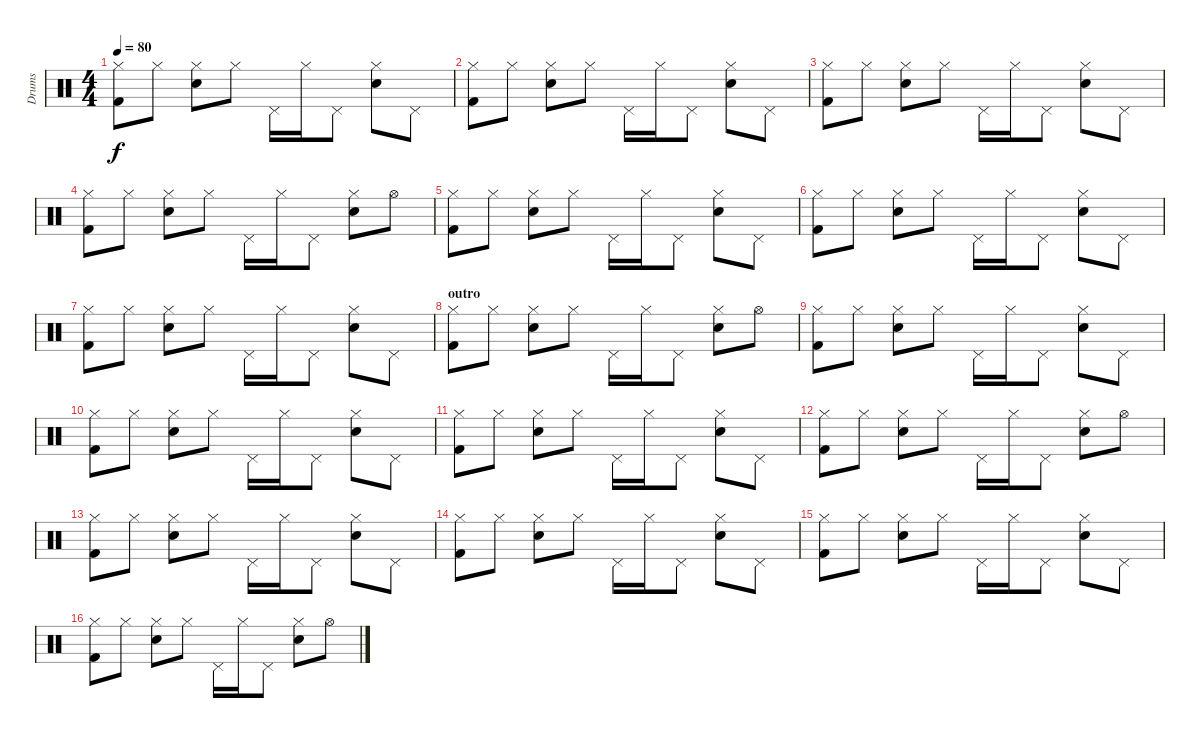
\track ("Drums" "Drums") {instrument percussion}
\staff {score}
\articulation defaults
\ts (4 4)
\tempo 80
\clef neutral
\ks c
("Kick (hit) 2" "Hi-Hat (closed)").8{dy f} "Hi-Hat (closed)".8 ("Snare (hit) 2" "Hi-Hat (closed)").8 "Hi-Hat (closed)".8 "Pedal Hi-Hat (hit)".16 "Hi-Hat (closed)".16 "Pedal Hi-Hat (hit)".8 ("Snare (hit) 2" "Hi-Hat (closed)").8 "Pedal Hi-Hat (hit)".8 |
("Kick (hit) 2" "Hi-Hat (closed)").8 "Hi-Hat (closed)".8 ("Snare (hit) 2" "Hi-Hat (closed)").8 "Hi-Hat (closed)".8 "Pedal Hi-Hat (hit)".16 "Hi-Hat (closed)".16 "Pedal Hi-Hat (hit)".8 ("Snare (hit) 2" "Hi-Hat (closed)").8 "Pedal Hi-Hat (hit)".8 |
("Kick (hit) 2" "Hi-Hat (closed)").8 "Hi-Hat (closed)".8 ("Snare (hit) 2" "Hi-Hat (closed)").8 "Hi-Hat (closed)".8 "Pedal Hi-Hat (hit)".16 "Hi-Hat (closed)".16 "Pedal Hi-Hat (hit)".8 ("Snare (hit) 2" "Hi-Hat (closed)").8 "Pedal Hi-Hat (hit)".8 |
("Kick (hit) 2" "Hi-Hat (closed)").8 "Hi-Hat (closed)".8 ("Snare (hit) 2" "Hi-Hat (closed)").8 "Hi-Hat (closed)".8 "Pedal Hi-Hat (hit)".16 "Hi-Hat (closed)".16 "Pedal Hi-Hat (hit)".8 ("Snare (hit) 2" "Hi-Hat (closed)").8 "Hi-Hat (open)".8 |
("Kick (hit) 2" "Hi-Hat (closed)").8 "Hi-Hat (closed)".8 ("Snare (hit) 2" "Hi-Hat (closed)").8 "Hi-Hat (closed)".8 "Pedal Hi-Hat (hit)".16 "Hi-Hat (closed)".16 "Pedal Hi-Hat (hit)".8 ("Snare (hit) 2" "Hi-Hat (closed)").8 "Pedal Hi-Hat (hit)".8 |
("Kick (hit) 2" "Hi-Hat (closed)").8 "Hi-Hat (closed)".8 ("Snare (hit) 2" "Hi-Hat (closed)").8 "Hi-Hat (closed)".8 "Pedal Hi-Hat (hit)".16 "Hi-Hat (closed)".16 "Pedal Hi-Hat (hit)".8 ("Snare (hit) 2" "Hi-Hat (closed)").8 "Pedal Hi-Hat (hit)".8 |
("Kick (hit) 2" "Hi-Hat (closed)").8 "Hi-Hat (closed)".8 ("Snare (hit) 2" "Hi-Hat (closed)").8 "Hi-Hat (closed)".8 "Pedal Hi-Hat (hit)".16 "Hi-Hat (closed)".16 "Pedal Hi-Hat (hit)".8 ("Snare (hit) 2" "Hi-Hat (closed)").8 "Pedal Hi-Hat (hit)".8 |
\section ("" "outro")
("Kick (hit) 2" "Hi-Hat (closed)").8 "Hi-Hat (closed)".8 ("Snare (hit) 2" "Hi-Hat (closed)").8 "Hi-Hat (closed)".8 "Pedal Hi-Hat (hit)".16 "Hi-Hat (closed)".16 "Pedal Hi-Hat (hit)".8 ("Snare (hit) 2" "Hi-Hat (closed)").8 "Hi-Hat (open)".8 |
("Kick (hit) 2" "Hi-Hat (closed)").8 "Hi-Hat (closed)".8 ("Snare (hit) 2" "Hi-Hat (closed)").8 "Hi-Hat (closed)".8 "Pedal Hi-Hat (hit)".16 "Hi-Hat (closed)".16 "Pedal Hi-Hat (hit)".8 ("Snare (hit) 2" "Hi-Hat (closed)").8 "Pedal Hi-Hat (hit)".8 |
("Kick (hit) 2" "Hi-Hat (closed)").8 "Hi-Hat (closed)".8 ("Snare (hit) 2" "Hi-Hat (closed)").8 "Hi-Hat (closed)".8 "Pedal Hi-Hat (hit)".16 "Hi-Hat (closed)".16 "Pedal Hi-Hat (hit)".8 ("Snare (hit) 2" "Hi-Hat (closed)").8 "Pedal Hi-Hat (hit)".8 |
("Kick (hit) 2" "Hi-Hat (closed)").8 "Hi-Hat (closed)".8 ("Snare (hit) 2" "Hi-Hat (closed)").8 "Hi-Hat (closed)".8 "Pedal Hi-Hat (hit)".16 "Hi-Hat (closed)".16 "Pedal Hi-Hat (hit)".8 ("Snare (hit) 2" "Hi-Hat (closed)").8 "Pedal Hi-Hat (hit)".8 |
("Kick (hit) 2" "Hi-Hat (closed)").8 "Hi-Hat (closed)".8 ("Snare (hit) 2" "Hi-Hat (closed)").8 "Hi-Hat (closed)".8 "Pedal Hi-Hat (hit)".16 "Hi-Hat (closed)".16 "Pedal Hi-Hat (hit)".8 ("Snare (hit) 2" "Hi-Hat (closed)").8 "Hi-Hat (open)".8 |
("Kick (hit) 2" "Hi-Hat (closed)").8 "Hi-Hat (closed)".8 ("Snare (hit) 2" "Hi-Hat (closed)").8 "Hi-Hat (closed)".8 "Pedal Hi-Hat (hit)".16 "Hi-Hat (closed)".16 "Pedal Hi-Hat (hit)".8 ("Snare (hit) 2" "Hi-Hat (closed)").8 "Pedal Hi-Hat (hit)".8 |
("Kick (hit) 2" "Hi-Hat (closed)").8 "Hi-Hat (closed)".8 ("Snare (hit) 2" "Hi-Hat (closed)").8 "Hi-Hat (closed)".8 "Pedal Hi-Hat (hit)".16 "Hi-Hat (closed)".16 "Pedal Hi-Hat (hit)".8 ("Snare (hit) 2" "Hi-Hat (closed)").8 "Pedal Hi-Hat (hit)".8 |
("Kick (hit) 2" "Hi-Hat (closed)").8 "Hi-Hat (closed)".8 ("Snare (hit) 2" "Hi-Hat (closed)").8 "Hi-Hat (closed)".8 "Pedal Hi-Hat (hit)".16 "Hi-Hat (closed)".16 "Pedal Hi-Hat (hit)".8 ("Snare (hit) 2" "Hi-Hat (closed)").8 "Pedal Hi-Hat (hit)".8 |
("Kick (hit) 2" "Hi-Hat (closed)").8 "Hi-Hat (closed)".8 ("Snare (hit) 2" "Hi-Hat (closed)").8 "Hi-Hat (closed)".8 "Pedal Hi-Hat (hit)".16 "Hi-Hat (closed)".16 "Pedal Hi-Hat (hit)".8 ("Snare (hit) 2" "Hi-Hat (closed)").8 "Hi-Hat (open)".8
